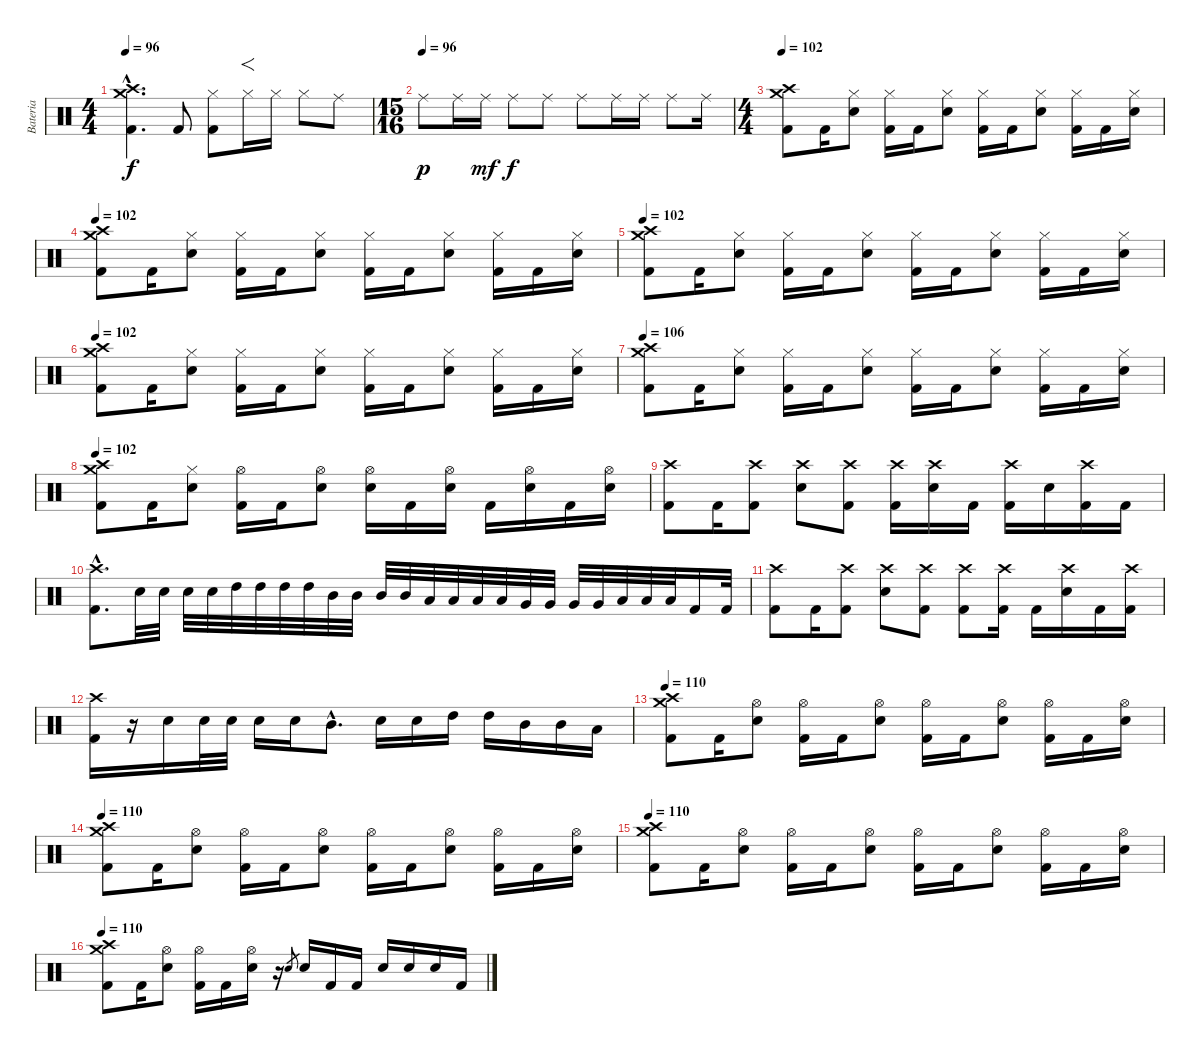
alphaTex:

\track ("Bateria" "Bateria") {instrument percussion}
\staff {score}
\articulation defaults
\ts (4 4)
\tempo 96
\clef neutral
\ks c
("Crash high (hit)"{hac} "Crash medium (hit)"{hac} "Kick (hit) 2"{hac}).4{d dy f} "Kick (hit) 2".8 ("Hi-Hat (closed)" "Kick (hit) 2").8 "Hi-Hat (closed)".16{f} "Hi-Hat (closed)".16 "Hi-Hat (closed)".8 "Ride (middle)".8 |
\ts (15 16)
\tempo (96)
"Ride (middle)".8{dy p} "Ride (middle)".16 "Ride (middle)".16{dy mf} "Ride (middle)".8{dy f} "Ride (middle)".8 "Ride (middle)".8 "Ride (middle)".16 "Ride (middle)".16 "Ride (middle)".8 "Ride (middle)".16 |
\ts (4 4)
\tempo 106
\tempo 102
("Crash medium (hit)" "Crash high (hit)" "Kick (hit) 2").8 "Kick (hit) 2".16 ("Hi-Hat (closed)" "Electric Snare (hit)").8 ("Hi-Hat (closed)" "Kick (hit) 2").16 "Kick (hit) 2".16 ("Hi-Hat (closed)" "Electric Snare (hit)").8 ("Hi-Hat (closed)" "Kick (hit) 2").16 "Kick (hit) 2".16 ("Hi-Hat (closed)" "Electric Snare (hit)").8 ("Hi-Hat (closed)" "Kick (hit) 2").16 "Kick (hit) 2".16 ("Hi-Hat (closed)" "Electric Snare (hit)").16 |
\tempo 106
\tempo 102
("Crash medium (hit)" "Crash high (hit)" "Kick (hit) 2").8 "Kick (hit) 2".16 ("Hi-Hat (closed)" "Electric Snare (hit)").8 ("Hi-Hat (closed)" "Kick (hit) 2").16 "Kick (hit) 2".16 ("Hi-Hat (closed)" "Electric Snare (hit)").8 ("Hi-Hat (closed)" "Kick (hit) 2").16 "Kick (hit) 2".16 ("Hi-Hat (closed)" "Electric Snare (hit)").8 ("Hi-Hat (closed)" "Kick (hit) 2").16 "Kick (hit) 2".16 ("Hi-Hat (closed)" "Electric Snare (hit)").16 |
\tempo 106
\tempo 102
("Crash medium (hit)" "Crash high (hit)" "Kick (hit) 2").8 "Kick (hit) 2".16 ("Hi-Hat (closed)" "Electric Snare (hit)").8 ("Hi-Hat (closed)" "Kick (hit) 2").16 "Kick (hit) 2".16 ("Hi-Hat (closed)" "Electric Snare (hit)").8 ("Hi-Hat (closed)" "Kick (hit) 2").16 "Kick (hit) 2".16 ("Hi-Hat (closed)" "Electric Snare (hit)").8 ("Hi-Hat (closed)" "Kick (hit) 2").16 "Kick (hit) 2".16 ("Hi-Hat (closed)" "Electric Snare (hit)").16 |
\tempo 106
\tempo 102
("Crash medium (hit)" "Crash high (hit)" "Kick (hit) 2").8 "Kick (hit) 2".16 ("Hi-Hat (closed)" "Electric Snare (hit)").8 ("Hi-Hat (closed)" "Kick (hit) 2").16 "Kick (hit) 2".16 ("Hi-Hat (closed)" "Electric Snare (hit)").8 ("Hi-Hat (closed)" "Kick (hit) 2").16 "Kick (hit) 2".16 ("Hi-Hat (closed)" "Electric Snare (hit)").8 ("Hi-Hat (closed)" "Kick (hit) 2").16 "Kick (hit) 2".16 ("Hi-Hat (closed)" "Electric Snare (hit)").16 |
\tempo 106
("Crash medium (hit)" "Crash high (hit)" "Kick (hit) 2").8 "Kick (hit) 2".16 ("Hi-Hat (closed)" "Electric Snare (hit)").8 ("Hi-Hat (closed)" "Kick (hit) 2").16 "Kick (hit) 2".16 ("Hi-Hat (closed)" "Electric Snare (hit)").8 ("Hi-Hat (closed)" "Kick (hit) 2").16 "Kick (hit) 2".16 ("Hi-Hat (closed)" "Electric Snare (hit)").8 ("Hi-Hat (closed)" "Kick (hit) 2").16 "Kick (hit) 2".16 ("Hi-Hat (closed)" "Electric Snare (hit)").16 |
\tempo 106
\tempo 102
("Crash medium (hit)" "Crash high (hit)" "Kick (hit) 2").8 "Kick (hit) 2".16 ("Hi-Hat (closed)" "Electric Snare (hit)").8 ("Hi-Hat (open)" "Kick (hit) 2").16 "Kick (hit) 2".16 ("Hi-Hat (open)" "Electric Snare (hit)").8 ("Hi-Hat (open)" "Electric Snare (hit)").16 "Kick (hit) 2".16 ("Hi-Hat (open)" "Electric Snare (hit)").16 "Kick (hit) 2".16 ("Hi-Hat (open)" "Electric Snare (hit)").16 "Kick (hit) 2".16 ("Hi-Hat (open)" "Electric Snare (hit)").16 |
("Kick (hit) 2" "Crash high (hit)").8 "Kick (hit) 2".16 ("Kick (hit) 2" "Crash high (hit)").8 ("Electric Snare (hit)" "Crash high (hit)").8 ("Kick (hit) 2" "Crash high (hit)").8 ("Kick (hit) 2" "Crash high (hit)").16 ("Electric Snare (hit)" "Crash high (hit)").16 "Kick (hit) 2".16 ("Kick (hit) 2" "Crash high (hit)").16 "Electric Snare (hit)".16 ("Kick (hit) 2" "Crash high (hit)").16 "Kick (hit) 2".16 |
("Kick (hit) 2"{hac} "Crash high (hit)"{hac}).8{d} "Electric Snare (hit)".32 "Electric Snare (hit)".32 "Electric Snare (hit)".32 "Electric Snare (hit)".32 "High Tom (hit)".32 "High Tom (hit)".32 "High Tom (hit)".32 "High Tom (hit)".32 "Mid Tom (hit)".32 "Mid Tom (hit)".32 "Mid Tom (hit)".32 "Mid Tom (hit)".32 "Low Tom (hit)".32 "Low Tom (hit)".32 "Low Tom (hit)".32 "Low Tom (hit)".32 "Very Low Tom (hit)".32 "Very Low Tom (hit)".32 "Very Low Tom (hit)".32 "Very Low Tom (hit)".32 "Low Floor Tom (hit)".32 "Low Floor Tom (hit)".32 "Low Floor Tom (hit)".32 "Kick (hit) 2".16 "Kick (hit) 2".32 |
("Kick (hit) 2" "Crash high (hit)").8 "Kick (hit) 2".16 ("Kick (hit) 2" "Crash high (hit)").8 ("Electric Snare (hit)" "Crash high (hit)").8 ("Kick (hit) 2" "Crash high (hit)").8 ("Kick (hit) 2" "Crash high (hit)").8 ("Kick (hit) 2" "Crash high (hit)").16 "Kick (hit) 2".16 ("Electric Snare (hit)" "Crash high (hit)").16 "Kick (hit) 2".16 ("Kick (hit) 2" "Crash high (hit)").16 |
("Kick (hit) 2" "Crash high (hit)").16 r.16 "Electric Snare (hit)".16 "Electric Snare (hit)".32 "Electric Snare (hit)".32 "Electric Snare (hit)".16 "Electric Snare (hit)".16 "Mid Tom (hit)"{hac}.8{d} "Electric Snare (hit)".16 "Electric Snare (hit)".16 "High Tom (hit)".16 "High Tom (hit)".16 "Mid Tom (hit)".16 "Mid Tom (hit)".16 "Low Tom (hit)".16 |
\tempo 110
("Crash medium (hit)" "Crash high (hit)" "Kick (hit) 2").8 "Kick (hit) 2".16 ("Hi-Hat (open)" "Electric Snare (hit)").8 ("Hi-Hat (open)" "Kick (hit) 2").16 "Kick (hit) 2".16 ("Hi-Hat (open)" "Electric Snare (hit)").8 ("Hi-Hat (open)" "Kick (hit) 2").16 "Kick (hit) 2".16 ("Hi-Hat (open)" "Electric Snare (hit)").8 ("Hi-Hat (open)" "Kick (hit) 2").16 "Kick (hit) 2".16 ("Hi-Hat (open)" "Electric Snare (hit)").16 |
\tempo 110
("Crash medium (hit)" "Crash high (hit)" "Kick (hit) 2").8 "Kick (hit) 2".16 ("Hi-Hat (open)" "Electric Snare (hit)").8 ("Hi-Hat (open)" "Kick (hit) 2").16 "Kick (hit) 2".16 ("Hi-Hat (open)" "Electric Snare (hit)").8 ("Hi-Hat (open)" "Kick (hit) 2").16 "Kick (hit) 2".16 ("Hi-Hat (open)" "Electric Snare (hit)").8 ("Hi-Hat (open)" "Kick (hit) 2").16 "Kick (hit) 2".16 ("Hi-Hat (open)" "Electric Snare (hit)").16 |
\tempo 110
("Crash medium (hit)" "Crash high (hit)" "Kick (hit) 2").8 "Kick (hit) 2".16 ("Hi-Hat (open)" "Electric Snare (hit)").8 ("Hi-Hat (open)" "Kick (hit) 2").16 "Kick (hit) 2".16 ("Hi-Hat (open)" "Electric Snare (hit)").8 ("Hi-Hat (open)" "Kick (hit) 2").16 "Kick (hit) 2".16 ("Hi-Hat (open)" "Electric Snare (hit)").8 ("Hi-Hat (open)" "Kick (hit) 2").16 "Kick (hit) 2".16 ("Hi-Hat (open)" "Electric Snare (hit)").16 |
\tempo 110
("Crash medium (hit)" "Crash high (hit)" "Kick (hit) 2").8 "Kick (hit) 2".16 ("Hi-Hat (open)" "Electric Snare (hit)").8 ("Hi-Hat (open)" "Kick (hit) 2").16 "Kick (hit) 2".16 ("Hi-Hat (open)" "Electric Snare (hit)").16 r.16 "Electric Snare (hit)".8{gr} "Electric Snare (hit)".16 "Kick (hit) 2".16 "Kick (hit) 2".16 "Electric Snare (hit)".16 "Electric Snare (hit)".16 "Electric Snare (hit)".16 "Kick (hit) 2".16
